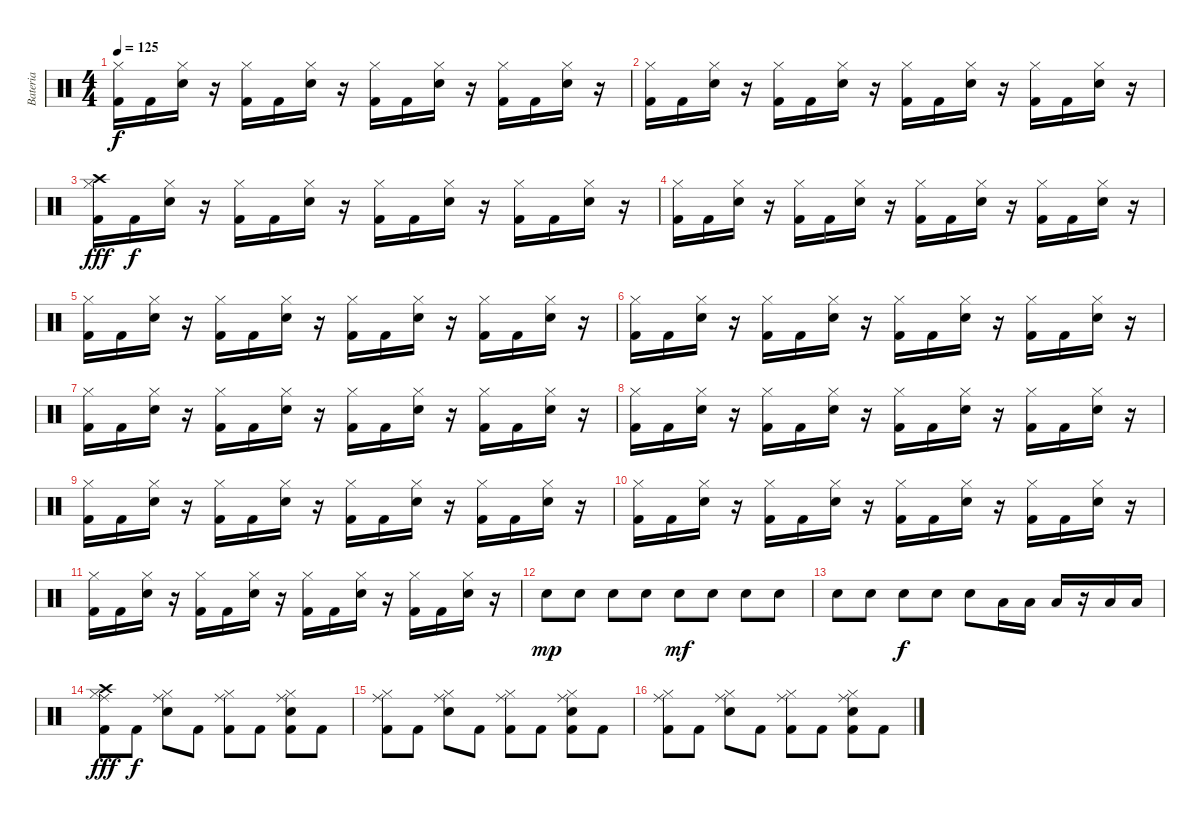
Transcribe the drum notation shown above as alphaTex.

\track ("Bateria" "Bateria") {instrument percussion}
\staff {score}
\articulation defaults
\ts (4 4)
\tempo 125
\clef neutral
\ks c
("Kick (hit) 2" "Hi-Hat (closed)").16{dy f} "Kick (hit) 2".16 ("Snare (hit) 2" "Hi-Hat (closed)").16 r.16 ("Kick (hit) 2" "Hi-Hat (closed)").16 "Kick (hit) 2".16 ("Snare (hit) 2" "Hi-Hat (closed)").16 r.16 ("Kick (hit) 2" "Hi-Hat (closed)").16 "Kick (hit) 2".16 ("Snare (hit) 2" "Hi-Hat (closed)").16 r.16 ("Kick (hit) 2" "Hi-Hat (closed)").16 "Kick (hit) 2".16 ("Snare (hit) 2" "Hi-Hat (closed)").16 r.16 |
("Kick (hit) 2" "Hi-Hat (closed)").16 "Kick (hit) 2".16 ("Snare (hit) 2" "Hi-Hat (closed)").16 r.16 ("Kick (hit) 2" "Hi-Hat (closed)").16 "Kick (hit) 2".16 ("Snare (hit) 2" "Hi-Hat (closed)").16 r.16 ("Kick (hit) 2" "Hi-Hat (closed)").16 "Kick (hit) 2".16 ("Snare (hit) 2" "Hi-Hat (closed)").16 r.16 ("Kick (hit) 2" "Hi-Hat (closed)").16 "Kick (hit) 2".16 ("Snare (hit) 2" "Hi-Hat (closed)").16 r.16 |
("Crash high (hit)" "Kick (hit) 2" "Hi-Hat (closed)").16{dy fff} "Kick (hit) 2".16{dy f} ("Snare (hit) 2" "Hi-Hat (closed)").16 r.16 ("Kick (hit) 2" "Hi-Hat (closed)").16 "Kick (hit) 2".16 ("Snare (hit) 2" "Hi-Hat (closed)").16 r.16 ("Kick (hit) 2" "Hi-Hat (closed)").16 "Kick (hit) 2".16 ("Snare (hit) 2" "Hi-Hat (closed)").16 r.16 ("Kick (hit) 2" "Hi-Hat (closed)").16 "Kick (hit) 2".16 ("Snare (hit) 2" "Hi-Hat (closed)").16 r.16 |
("Kick (hit) 2" "Hi-Hat (closed)").16 "Kick (hit) 2".16 ("Snare (hit) 2" "Hi-Hat (closed)").16 r.16 ("Kick (hit) 2" "Hi-Hat (closed)").16 "Kick (hit) 2".16 ("Snare (hit) 2" "Hi-Hat (closed)").16 r.16 ("Kick (hit) 2" "Hi-Hat (closed)").16 "Kick (hit) 2".16 ("Snare (hit) 2" "Hi-Hat (closed)").16 r.16 ("Kick (hit) 2" "Hi-Hat (closed)").16 "Kick (hit) 2".16 ("Snare (hit) 2" "Hi-Hat (closed)").16 r.16 |
("Kick (hit) 2" "Hi-Hat (closed)").16 "Kick (hit) 2".16 ("Snare (hit) 2" "Hi-Hat (closed)").16 r.16 ("Kick (hit) 2" "Hi-Hat (closed)").16 "Kick (hit) 2".16 ("Snare (hit) 2" "Hi-Hat (closed)").16 r.16 ("Kick (hit) 2" "Hi-Hat (closed)").16 "Kick (hit) 2".16 ("Snare (hit) 2" "Hi-Hat (closed)").16 r.16 ("Kick (hit) 2" "Hi-Hat (closed)").16 "Kick (hit) 2".16 ("Snare (hit) 2" "Hi-Hat (closed)").16 r.16 |
("Kick (hit) 2" "Hi-Hat (closed)").16 "Kick (hit) 2".16 ("Snare (hit) 2" "Hi-Hat (closed)").16 r.16 ("Kick (hit) 2" "Hi-Hat (closed)").16 "Kick (hit) 2".16 ("Snare (hit) 2" "Hi-Hat (closed)").16 r.16 ("Kick (hit) 2" "Hi-Hat (closed)").16 "Kick (hit) 2".16 ("Snare (hit) 2" "Hi-Hat (closed)").16 r.16 ("Kick (hit) 2" "Hi-Hat (closed)").16 "Kick (hit) 2".16 ("Snare (hit) 2" "Hi-Hat (closed)").16 r.16 |
("Kick (hit) 2" "Hi-Hat (closed)").16 "Kick (hit) 2".16 ("Snare (hit) 2" "Hi-Hat (closed)").16 r.16 ("Kick (hit) 2" "Hi-Hat (closed)").16 "Kick (hit) 2".16 ("Snare (hit) 2" "Hi-Hat (closed)").16 r.16 ("Kick (hit) 2" "Hi-Hat (closed)").16 "Kick (hit) 2".16 ("Snare (hit) 2" "Hi-Hat (closed)").16 r.16 ("Kick (hit) 2" "Hi-Hat (closed)").16 "Kick (hit) 2".16 ("Snare (hit) 2" "Hi-Hat (closed)").16 r.16 |
("Kick (hit) 2" "Hi-Hat (closed)").16 "Kick (hit) 2".16 ("Snare (hit) 2" "Hi-Hat (closed)").16 r.16 ("Kick (hit) 2" "Hi-Hat (closed)").16 "Kick (hit) 2".16 ("Snare (hit) 2" "Hi-Hat (closed)").16 r.16 ("Kick (hit) 2" "Hi-Hat (closed)").16 "Kick (hit) 2".16 ("Snare (hit) 2" "Hi-Hat (closed)").16 r.16 ("Kick (hit) 2" "Hi-Hat (closed)").16 "Kick (hit) 2".16 ("Snare (hit) 2" "Hi-Hat (closed)").16 r.16 |
("Kick (hit) 2" "Hi-Hat (closed)").16 "Kick (hit) 2".16 ("Snare (hit) 2" "Hi-Hat (closed)").16 r.16 ("Kick (hit) 2" "Hi-Hat (closed)").16 "Kick (hit) 2".16 ("Snare (hit) 2" "Hi-Hat (closed)").16 r.16 ("Kick (hit) 2" "Hi-Hat (closed)").16 "Kick (hit) 2".16 ("Snare (hit) 2" "Hi-Hat (closed)").16 r.16 ("Kick (hit) 2" "Hi-Hat (closed)").16 "Kick (hit) 2".16 ("Snare (hit) 2" "Hi-Hat (closed)").16 r.16 |
("Kick (hit) 2" "Hi-Hat (closed)").16 "Kick (hit) 2".16 ("Snare (hit) 2" "Hi-Hat (closed)").16 r.16 ("Kick (hit) 2" "Hi-Hat (closed)").16 "Kick (hit) 2".16 ("Snare (hit) 2" "Hi-Hat (closed)").16 r.16 ("Kick (hit) 2" "Hi-Hat (closed)").16 "Kick (hit) 2".16 ("Snare (hit) 2" "Hi-Hat (closed)").16 r.16 ("Kick (hit) 2" "Hi-Hat (closed)").16 "Kick (hit) 2".16 ("Snare (hit) 2" "Hi-Hat (closed)").16 r.16 |
("Kick (hit) 2" "Hi-Hat (closed)").16 "Kick (hit) 2".16 ("Snare (hit) 2" "Hi-Hat (closed)").16 r.16 ("Kick (hit) 2" "Hi-Hat (closed)").16 "Kick (hit) 2".16 ("Snare (hit) 2" "Hi-Hat (closed)").16 r.16 ("Kick (hit) 2" "Hi-Hat (closed)").16 "Kick (hit) 2".16 ("Snare (hit) 2" "Hi-Hat (closed)").16 r.16 ("Kick (hit) 2" "Hi-Hat (closed)").16 "Kick (hit) 2".16 ("Snare (hit) 2" "Hi-Hat (closed)").16 r.16 |
"Snare (hit) 2".8{dy mp} "Snare (hit) 2".8 "Snare (hit) 2".8 "Snare (hit) 2".8 "Snare (hit) 2".8{dy mf} "Snare (hit) 2".8 "Snare (hit) 2".8 "Snare (hit) 2".8 |
"Snare (hit) 2".8 "Snare (hit) 2".8 "Snare (hit) 2".8{dy f} "Snare (hit) 2".8 "Snare (hit) 2".8 "Low Tom (hit)".16 "Low Tom (hit)".16 "Low Tom (hit)".16 r.16 "Low Tom (hit)".16 "Low Tom (hit)".16 |
("Kick (hit) 2" "Hi-Hat (closed)" "Ride (middle)" "Crash high (hit)").8{dy fff} "Kick (hit) 2".8{dy f} ("Snare (hit) 2" "Hi-Hat (closed)" "Ride (middle)").8 "Kick (hit) 2".8 ("Kick (hit) 2" "Hi-Hat (closed)" "Ride (middle)").8 "Kick (hit) 2".8 ("Kick (hit) 2" "Snare (hit) 2" "Hi-Hat (closed)" "Ride (middle)").8 "Kick (hit) 2".8 |
("Kick (hit) 2" "Hi-Hat (closed)" "Ride (middle)").8 "Kick (hit) 2".8 ("Snare (hit) 2" "Hi-Hat (closed)" "Ride (middle)").8 "Kick (hit) 2".8 ("Kick (hit) 2" "Hi-Hat (closed)" "Ride (middle)").8 "Kick (hit) 2".8 ("Kick (hit) 2" "Snare (hit) 2" "Hi-Hat (closed)" "Ride (middle)").8 "Kick (hit) 2".8 |
("Kick (hit) 2" "Hi-Hat (closed)" "Ride (middle)").8 "Kick (hit) 2".8 ("Snare (hit) 2" "Hi-Hat (closed)" "Ride (middle)").8 "Kick (hit) 2".8 ("Kick (hit) 2" "Hi-Hat (closed)" "Ride (middle)").8 "Kick (hit) 2".8 ("Kick (hit) 2" "Snare (hit) 2" "Hi-Hat (closed)" "Ride (middle)").8 "Kick (hit) 2".8
